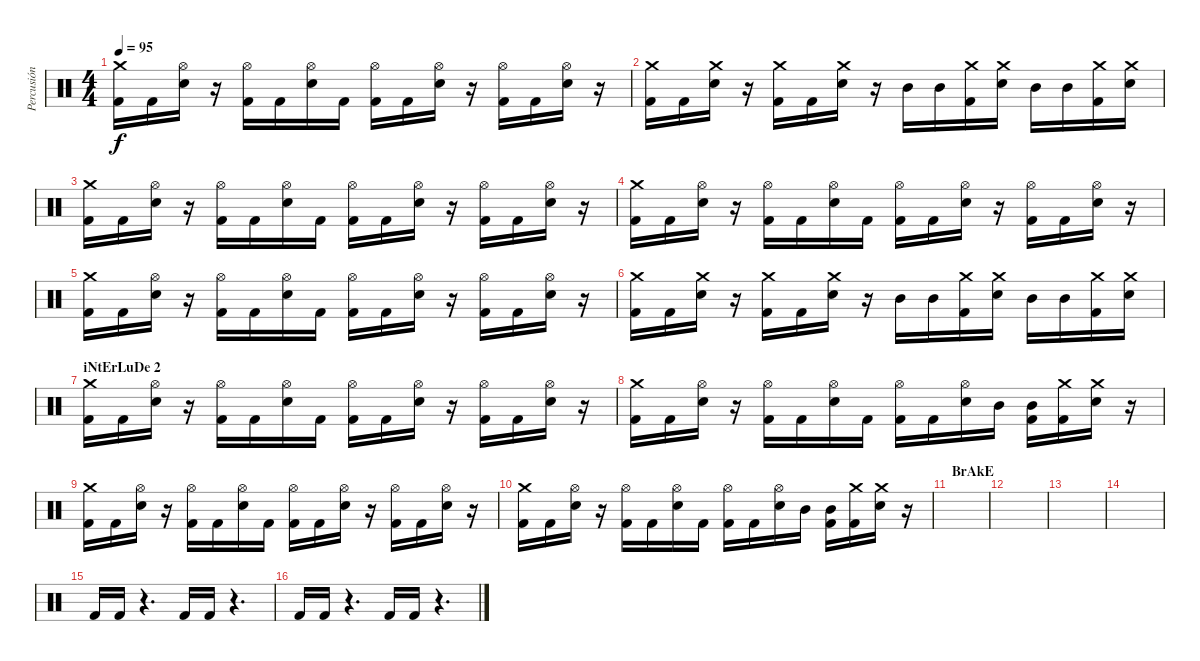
\track ("Percusión" "Percusión") {instrument percussion}
\staff {score}
\articulation defaults
\ts (4 4)
\tempo 95
\clef neutral
\ks c
("Crash medium (hit)" "Kick (hit) 2").16{dy f} "Kick (hit) 2".16 ("Hi-Hat (open)" "Electric Snare (hit)").16 r.16 ("Hi-Hat (open)" "Kick (hit) 2").16 "Kick (hit) 2".16 ("Hi-Hat (open)" "Electric Snare (hit)").16 "Kick (hit) 2".16 ("Hi-Hat (open)" "Kick (hit) 2").16 "Kick (hit) 2".16 ("Hi-Hat (open)" "Electric Snare (hit)").16 r.16 ("Hi-Hat (open)" "Kick (hit) 2").16 "Kick (hit) 2".16 ("Hi-Hat (open)" "Electric Snare (hit)").16 r.16 |
("Crash medium (hit)" "Kick (hit) 2").16 "Kick (hit) 2".16 ("Crash medium (hit)" "Electric Snare (hit)").16 r.16 ("Crash medium (hit)" "Kick (hit) 2").16 "Kick (hit) 2".16 ("Crash medium (hit)" "Electric Snare (hit)").16 r.16 "Mid Tom (hit)".16 "Mid Tom (hit)".16 ("Crash medium (hit)" "Kick (hit) 2").16 ("Crash medium (hit)" "Electric Snare (hit)").16 "Mid Tom (hit)".16 "Mid Tom (hit)".16 ("Crash medium (hit)" "Kick (hit) 2").16 ("Crash medium (hit)" "Electric Snare (hit)").16 |
("Crash medium (hit)" "Kick (hit) 2").16 "Kick (hit) 2".16 ("Hi-Hat (open)" "Electric Snare (hit)").16 r.16 ("Hi-Hat (open)" "Kick (hit) 2").16 "Kick (hit) 2".16 ("Hi-Hat (open)" "Electric Snare (hit)").16 "Kick (hit) 2".16 ("Hi-Hat (open)" "Kick (hit) 2").16 "Kick (hit) 2".16 ("Hi-Hat (open)" "Electric Snare (hit)").16 r.16 ("Hi-Hat (open)" "Kick (hit) 2").16 "Kick (hit) 2".16 ("Hi-Hat (open)" "Electric Snare (hit)").16 r.16 |
("Crash medium (hit)" "Kick (hit) 2").16 "Kick (hit) 2".16 ("Hi-Hat (open)" "Electric Snare (hit)").16 r.16 ("Hi-Hat (open)" "Kick (hit) 2").16 "Kick (hit) 2".16 ("Hi-Hat (open)" "Electric Snare (hit)").16 "Kick (hit) 2".16 ("Hi-Hat (open)" "Kick (hit) 2").16 "Kick (hit) 2".16 ("Hi-Hat (open)" "Electric Snare (hit)").16 r.16 ("Hi-Hat (open)" "Kick (hit) 2").16 "Kick (hit) 2".16 ("Hi-Hat (open)" "Electric Snare (hit)").16 r.16 |
("Crash medium (hit)" "Kick (hit) 2").16 "Kick (hit) 2".16 ("Hi-Hat (open)" "Electric Snare (hit)").16 r.16 ("Hi-Hat (open)" "Kick (hit) 2").16 "Kick (hit) 2".16 ("Hi-Hat (open)" "Electric Snare (hit)").16 "Kick (hit) 2".16 ("Hi-Hat (open)" "Kick (hit) 2").16 "Kick (hit) 2".16 ("Hi-Hat (open)" "Electric Snare (hit)").16 r.16 ("Hi-Hat (open)" "Kick (hit) 2").16 "Kick (hit) 2".16 ("Hi-Hat (open)" "Electric Snare (hit)").16 r.16 |
("Crash medium (hit)" "Kick (hit) 2").16 "Kick (hit) 2".16 ("Crash medium (hit)" "Electric Snare (hit)").16 r.16 ("Crash medium (hit)" "Kick (hit) 2").16 "Kick (hit) 2".16 ("Crash medium (hit)" "Electric Snare (hit)").16 r.16 "Mid Tom (hit)".16 "Mid Tom (hit)".16 ("Crash medium (hit)" "Kick (hit) 2").16 ("Crash medium (hit)" "Electric Snare (hit)").16 "Mid Tom (hit)".16 "Mid Tom (hit)".16 ("Crash medium (hit)" "Kick (hit) 2").16 ("Crash medium (hit)" "Electric Snare (hit)").16 |
\section ("" "iNtErLuDe 2")
("Crash medium (hit)" "Kick (hit) 2").16 "Kick (hit) 2".16 ("Hi-Hat (open)" "Electric Snare (hit)").16 r.16 ("Hi-Hat (open)" "Kick (hit) 2").16 "Kick (hit) 2".16 ("Hi-Hat (open)" "Electric Snare (hit)").16 "Kick (hit) 2".16 ("Hi-Hat (open)" "Kick (hit) 2").16 "Kick (hit) 2".16 ("Hi-Hat (open)" "Electric Snare (hit)").16 r.16 ("Hi-Hat (open)" "Kick (hit) 2").16 "Kick (hit) 2".16 ("Hi-Hat (open)" "Electric Snare (hit)").16 r.16 |
("Crash medium (hit)" "Kick (hit) 2").16 "Kick (hit) 2".16 ("Hi-Hat (open)" "Electric Snare (hit)").16 r.16 ("Hi-Hat (open)" "Kick (hit) 2").16 "Kick (hit) 2".16 ("Hi-Hat (open)" "Electric Snare (hit)").16 "Kick (hit) 2".16 ("Hi-Hat (open)" "Kick (hit) 2").16 "Kick (hit) 2".16 ("Hi-Hat (open)" "Electric Snare (hit)").16 "Mid Tom (hit)".16 ("Mid Tom (hit)" "Kick (hit) 2").16 ("Crash medium (hit)" "Kick (hit) 2").16 ("Crash medium (hit)" "Electric Snare (hit)").16 r.16 |
("Crash medium (hit)" "Kick (hit) 2").16 "Kick (hit) 2".16 ("Hi-Hat (open)" "Electric Snare (hit)").16 r.16 ("Hi-Hat (open)" "Kick (hit) 2").16 "Kick (hit) 2".16 ("Hi-Hat (open)" "Electric Snare (hit)").16 "Kick (hit) 2".16 ("Hi-Hat (open)" "Kick (hit) 2").16 "Kick (hit) 2".16 ("Hi-Hat (open)" "Electric Snare (hit)").16 r.16 ("Hi-Hat (open)" "Kick (hit) 2").16 "Kick (hit) 2".16 ("Hi-Hat (open)" "Electric Snare (hit)").16 r.16 |
("Crash medium (hit)" "Kick (hit) 2").16 "Kick (hit) 2".16 ("Hi-Hat (open)" "Electric Snare (hit)").16 r.16 ("Hi-Hat (open)" "Kick (hit) 2").16 "Kick (hit) 2".16 ("Hi-Hat (open)" "Electric Snare (hit)").16 "Kick (hit) 2".16 ("Hi-Hat (open)" "Kick (hit) 2").16 "Kick (hit) 2".16 ("Hi-Hat (open)" "Electric Snare (hit)").16 "Mid Tom (hit)".16 ("Mid Tom (hit)" "Kick (hit) 2").16 ("Crash medium (hit)" "Kick (hit) 2").16 ("Crash medium (hit)" "Electric Snare (hit)").16 r.16 |
\section ("" "BrAkE")
|
|
|
|
"Kick (hit) 2".16 "Kick (hit) 2".16 r.4{d} "Kick (hit) 2".16 "Kick (hit) 2".16 r.4{d} |
"Kick (hit) 2".16 "Kick (hit) 2".16 r.4{d} "Kick (hit) 2".16 "Kick (hit) 2".16 r.4{d}
